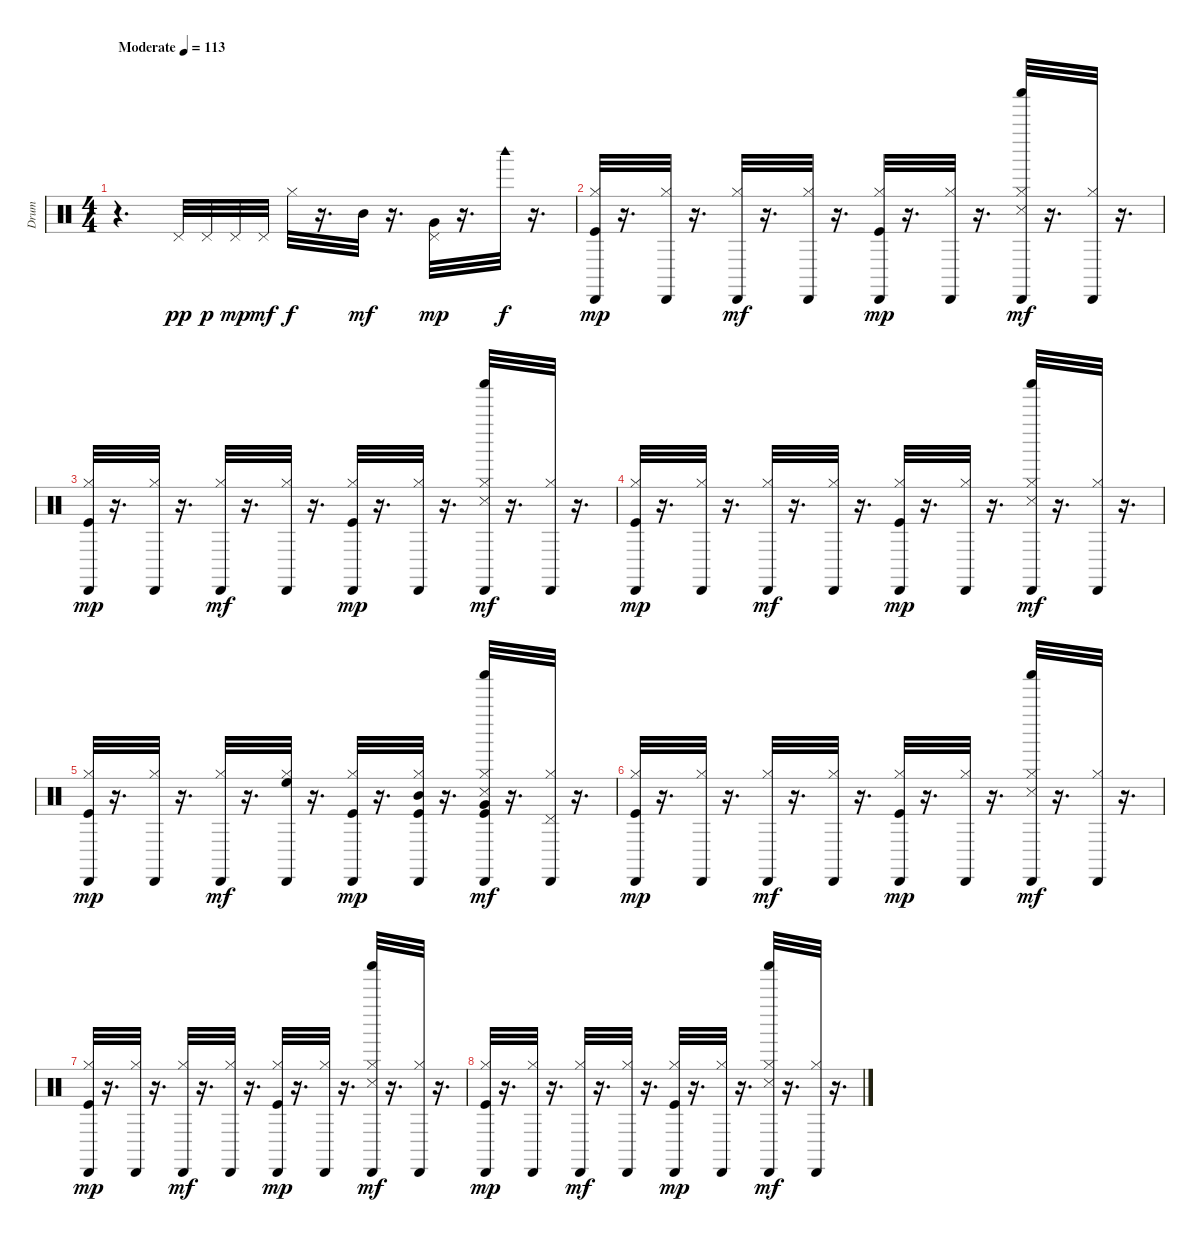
\track ("Drum" "Drum") {instrument percussion}
\staff {score}
\articulation defaults
\ts (4 4)
\tempo (113 "Moderate")
\clef neutral
\ks c
r.4{d dy pp} "Pedal Hi-Hat (hit)".32 "Pedal Hi-Hat (hit)".32{dy p} "Pedal Hi-Hat (hit)".32{dy mp} "Pedal Hi-Hat (hit)".32{dy mf} "Hi-Hat (closed)".32{dy f} r.16{d} "Mid Tom (hit)".32{dy mf} r.16{d} ("Pedal Hi-Hat (hit)" "Very Low Tom (hit)").32{dy mp} r.16{d} "Woodblock high (hit)".32{dy f} r.16{d} |
("Hi-Hat (closed)" "Kick (hit)" "Cabasa (hit)").32{dy mp} r.16{d} ("Hi-Hat (closed)" "Cabasa (hit)").32 r.16{d} ("Hi-Hat (closed)" "Cabasa (hit)").32{dy mf} r.16{d} ("Hi-Hat (closed)" "Cabasa (hit)").32 r.16{d} ("Hi-Hat (closed)" "Kick (hit)" "Cabasa (hit)").32{dy mp} r.16{d} ("Hi-Hat (closed)" "Cabasa (hit)").32 r.16{d} ("Hi-Hat (closed)" "Shaker (hit)" "Snare (side stick) 3" "Cabasa (hit)").32{dy mf} r.16{d} ("Hi-Hat (closed)" "Cabasa (hit)").32 r.16{d} |
("Hi-Hat (closed)" "Kick (hit)" "Cabasa (hit)").32{dy mp} r.16{d} ("Hi-Hat (closed)" "Cabasa (hit)").32 r.16{d} ("Hi-Hat (closed)" "Cabasa (hit)").32{dy mf} r.16{d} ("Hi-Hat (closed)" "Cabasa (hit)").32 r.16{d} ("Hi-Hat (closed)" "Kick (hit)" "Cabasa (hit)").32{dy mp} r.16{d} ("Hi-Hat (closed)" "Cabasa (hit)").32 r.16{d} ("Hi-Hat (closed)" "Shaker (hit)" "Snare (side stick) 3" "Cabasa (hit)").32{dy mf} r.16{d} ("Hi-Hat (closed)" "Cabasa (hit)").32 r.16{d} |
("Hi-Hat (closed)" "Kick (hit)" "Cabasa (hit)").32{dy mp} r.16{d} ("Hi-Hat (closed)" "Cabasa (hit)").32 r.16{d} ("Hi-Hat (closed)" "Cabasa (hit)").32{dy mf} r.16{d} ("Hi-Hat (closed)" "Cabasa (hit)").32 r.16{d} ("Hi-Hat (closed)" "Kick (hit)" "Cabasa (hit)").32{dy mp} r.16{d} ("Hi-Hat (closed)" "Cabasa (hit)").32 r.16{d} ("Hi-Hat (closed)" "Shaker (hit)" "Snare (side stick) 3" "Cabasa (hit)").32{dy mf} r.16{d} ("Hi-Hat (closed)" "Cabasa (hit)").32 r.16{d} |
("Hi-Hat (closed)" "Kick (hit)" "Cabasa (hit)").32{dy mp} r.16{d} ("Hi-Hat (closed)" "Cabasa (hit)").32 r.16{d} ("Hi-Hat (closed)" "Cabasa (hit)").32{dy mf} r.16{d} ("Hi-Hat (closed)" "High Floor Tom (hit)" "Cabasa (hit)").32 r.16{d} ("Hi-Hat (closed)" "Kick (hit)" "Cabasa (hit)").32{dy mp} r.16{d} ("Hi-Hat (closed)" "Mid Tom (hit)" "Kick (hit)" "Cabasa (hit)").32 r.16{d} ("Hi-Hat (closed)" "Very Low Tom (hit)" "Shaker (hit)" "Snare (side stick) 3" "Kick (hit)" "Cabasa (hit)").32{dy mf} r.16{d} ("Hi-Hat (closed)" "Pedal Hi-Hat (hit)" "Cabasa (hit)").32 r.16{d} |
("Hi-Hat (closed)" "Kick (hit)" "Cabasa (hit)").32{dy mp} r.16{d} ("Hi-Hat (closed)" "Cabasa (hit)").32 r.16{d} ("Hi-Hat (closed)" "Cabasa (hit)").32{dy mf} r.16{d} ("Hi-Hat (closed)" "Cabasa (hit)").32 r.16{d} ("Hi-Hat (closed)" "Kick (hit)" "Cabasa (hit)").32{dy mp} r.16{d} ("Hi-Hat (closed)" "Cabasa (hit)").32 r.16{d} ("Hi-Hat (closed)" "Shaker (hit)" "Snare (side stick) 3" "Cabasa (hit)").32{dy mf} r.16{d} ("Hi-Hat (closed)" "Cabasa (hit)").32 r.16{d} |
("Hi-Hat (closed)" "Kick (hit)" "Cabasa (hit)").32{dy mp} r.16{d} ("Hi-Hat (closed)" "Cabasa (hit)").32 r.16{d} ("Hi-Hat (closed)" "Cabasa (hit)").32{dy mf} r.16{d} ("Hi-Hat (closed)" "Cabasa (hit)").32 r.16{d} ("Hi-Hat (closed)" "Kick (hit)" "Cabasa (hit)").32{dy mp} r.16{d} ("Hi-Hat (closed)" "Cabasa (hit)").32 r.16{d} ("Hi-Hat (closed)" "Shaker (hit)" "Snare (side stick) 3" "Cabasa (hit)").32{dy mf} r.16{d} ("Hi-Hat (closed)" "Cabasa (hit)").32 r.16{d} |
("Hi-Hat (closed)" "Kick (hit)" "Cabasa (hit)").32{dy mp} r.16{d} ("Hi-Hat (closed)" "Cabasa (hit)").32 r.16{d} ("Hi-Hat (closed)" "Cabasa (hit)").32{dy mf} r.16{d} ("Hi-Hat (closed)" "Cabasa (hit)").32 r.16{d} ("Hi-Hat (closed)" "Kick (hit)" "Cabasa (hit)").32{dy mp} r.16{d} ("Hi-Hat (closed)" "Cabasa (hit)").32 r.16{d} ("Hi-Hat (closed)" "Shaker (hit)" "Snare (side stick) 3" "Cabasa (hit)").32{dy mf} r.16{d} ("Hi-Hat (closed)" "Cabasa (hit)").32 r.16{d}
